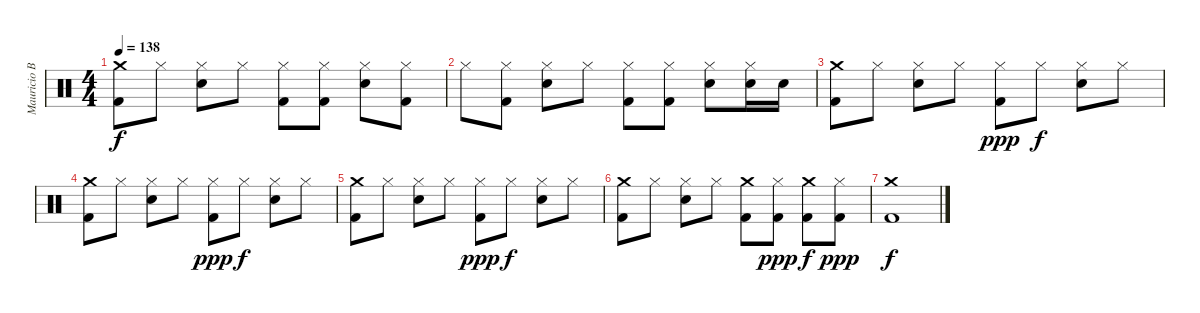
\track ("Mauricio Basualto" "Mauricio B") {instrument percussion}
\staff {score}
\articulation defaults
\ts (4 4)
\tempo 138
\clef neutral
\ks c
("Crash medium (hit)" "Kick (hit) 2").8{dy f} "Hi-Hat (closed)".8 ("Hi-Hat (closed)" "Snare (hit) 2").8 "Hi-Hat (closed)".8 ("Hi-Hat (closed)" "Kick (hit) 2").8 ("Hi-Hat (closed)" "Kick (hit) 2").8 ("Hi-Hat (closed)" "Snare (hit) 2").8 ("Hi-Hat (closed)" "Kick (hit) 2").8 |
"Hi-Hat (closed)".8 ("Hi-Hat (closed)" "Kick (hit) 2").8 ("Hi-Hat (closed)" "Snare (hit) 2").8 "Hi-Hat (closed)".8 ("Hi-Hat (closed)" "Kick (hit) 2").8 ("Hi-Hat (closed)" "Kick (hit) 2").8 ("Hi-Hat (closed)" "Snare (hit) 2").8 ("Hi-Hat (closed)" "Snare (hit) 2").16 "Snare (hit) 2".16 |
("Crash medium (hit)" "Kick (hit) 2").8 "Hi-Hat (closed)".8 ("Hi-Hat (closed)" "Snare (hit) 2").8 "Hi-Hat (closed)".8 ("Hi-Hat (closed)" "Kick (hit) 2").8{dy ppp} "Hi-Hat (closed)".8{dy f} ("Hi-Hat (closed)" "Snare (hit) 2").8 "Hi-Hat (closed)".8 |
("Crash medium (hit)" "Kick (hit) 2").8 "Hi-Hat (closed)".8 ("Hi-Hat (closed)" "Snare (hit) 2").8 "Hi-Hat (closed)".8 ("Hi-Hat (closed)" "Kick (hit) 2").8{dy ppp} "Hi-Hat (closed)".8{dy f} ("Hi-Hat (closed)" "Snare (hit) 2").8 "Hi-Hat (closed)".8 |
("Crash medium (hit)" "Kick (hit) 2").8 "Hi-Hat (closed)".8 ("Hi-Hat (closed)" "Snare (hit) 2").8 "Hi-Hat (closed)".8 ("Hi-Hat (closed)" "Kick (hit) 2").8{dy ppp} "Hi-Hat (closed)".8{dy f} ("Hi-Hat (closed)" "Snare (hit) 2").8 "Hi-Hat (closed)".8 |
("Crash medium (hit)" "Kick (hit) 2").8 "Hi-Hat (closed)".8 ("Hi-Hat (closed)" "Snare (hit) 2").8 "Hi-Hat (closed)".8 ("Crash medium (hit)" "Kick (hit) 2").8 ("Hi-Hat (closed)" "Kick (hit) 2").8{dy ppp} ("Crash medium (hit)" "Kick (hit) 2").8{dy f} ("Hi-Hat (closed)" "Kick (hit) 2").8{dy ppp} |
("Crash medium (hit)" "Kick (hit) 2").1{dy f}
